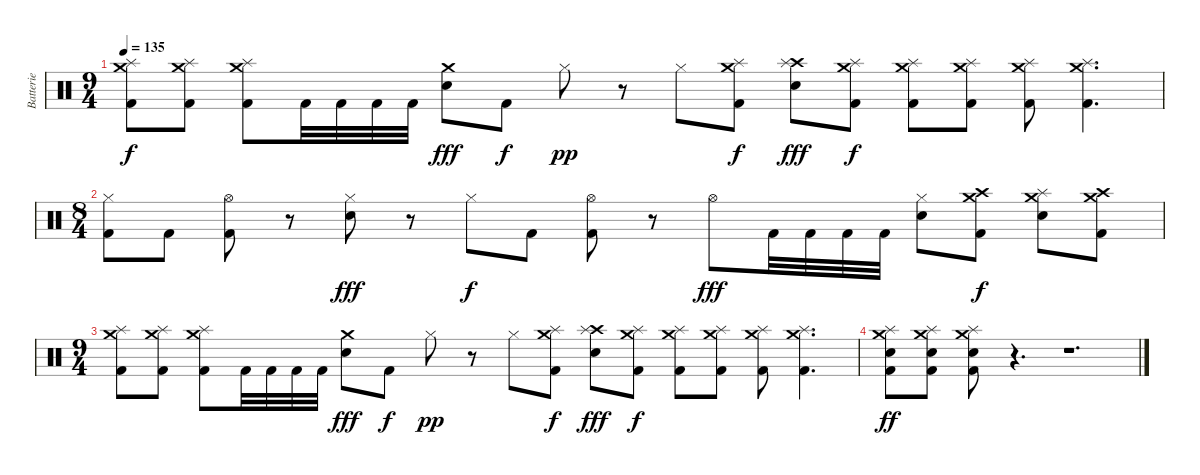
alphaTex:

\track ("Batterie" "Batterie") {instrument percussion}
\staff {score}
\articulation defaults
\ts (9 4)
\tempo 135
\clef neutral
\ks c
("Splash (hit)" "Crash medium (hit)" "Kick (hit) 2").8{dy f} ("Splash (hit)" "Crash medium (hit)" "Kick (hit) 2").8 ("Splash (hit)" "Crash medium (hit)" "Kick (hit) 2").8 "Kick (hit) 2".32 "Kick (hit) 2".32 "Kick (hit) 2".32 "Kick (hit) 2".32 ("Crash medium (hit)" "Electric Snare (hit)").8{dy fff} "Kick (hit) 2".8{dy f} "Hi-Hat (closed)".8{dy pp} r.8 "Hi-Hat (closed)".8 ("Crash medium (hit)" "Splash (hit)" "Kick (hit) 2").8{dy f} ("Crash high (hit)" "Splash (hit)" "Electric Snare (hit)").8{dy fff} ("Crash medium (hit)" "Splash (hit)" "Kick (hit) 2").8{dy f} ("Splash (hit)" "Crash medium (hit)" "Kick (hit) 2").8 ("Splash (hit)" "Crash medium (hit)" "Kick (hit) 2").8 ("Splash (hit)" "Crash medium (hit)" "Kick (hit) 2").8 ("Splash (hit)" "Crash medium (hit)" "Kick (hit) 2").4{d} |
\ts (8 4)
("Hi-Hat (closed)" "Kick (hit) 2").8 "Kick (hit) 2".8 ("Hi-Hat (open)" "Kick (hit) 2").8 r.8 ("Hi-Hat (closed)" "Electric Snare (hit)").8{dy fff} r.8 "Hi-Hat (closed)".8{dy f} "Kick (hit) 2".8 ("Hi-Hat (open)" "Kick (hit) 2").8 r.8 "Hi-Hat (open)".8{dy fff} "Kick (hit) 2".32 "Kick (hit) 2".32 "Kick (hit) 2".32 "Kick (hit) 2".32 ("Hi-Hat (closed)" "Electric Snare (hit)").8 ("Crash medium (hit)" "Crash high (hit)" "Kick (hit) 2").8{dy f} ("Crash medium (hit)" "Splash (hit)" "Electric Snare (hit)").8 ("Crash medium (hit)" "Crash high (hit)" "Kick (hit) 2").8 |
\ts (9 4)
("Splash (hit)" "Crash medium (hit)" "Kick (hit) 2").8 ("Splash (hit)" "Crash medium (hit)" "Kick (hit) 2").8 ("Splash (hit)" "Crash medium (hit)" "Kick (hit) 2").8 "Kick (hit) 2".32 "Kick (hit) 2".32 "Kick (hit) 2".32 "Kick (hit) 2".32 ("Crash medium (hit)" "Electric Snare (hit)").8{dy fff} "Kick (hit) 2".8{dy f} "Hi-Hat (closed)".8{dy pp} r.8 "Hi-Hat (closed)".8 ("Crash medium (hit)" "Splash (hit)" "Kick (hit) 2").8{dy f} ("Crash high (hit)" "Splash (hit)" "Electric Snare (hit)").8{dy fff} ("Crash medium (hit)" "Splash (hit)" "Kick (hit) 2").8{dy f} ("Splash (hit)" "Crash medium (hit)" "Kick (hit) 2").8 ("Splash (hit)" "Crash medium (hit)" "Kick (hit) 2").8 ("Splash (hit)" "Crash medium (hit)" "Kick (hit) 2").8 ("Splash (hit)" "Crash medium (hit)" "Kick (hit) 2").4{d} |
("Splash (hit)" "Crash medium (hit)" "Electric Snare (hit)" "Kick (hit) 2").8{dy ff} ("Splash (hit)" "Crash medium (hit)" "Electric Snare (hit)" "Kick (hit) 2").8 ("Splash (hit)" "Crash medium (hit)" "Electric Snare (hit)" "Kick (hit) 2").8 r.4{d} r.1{d}
